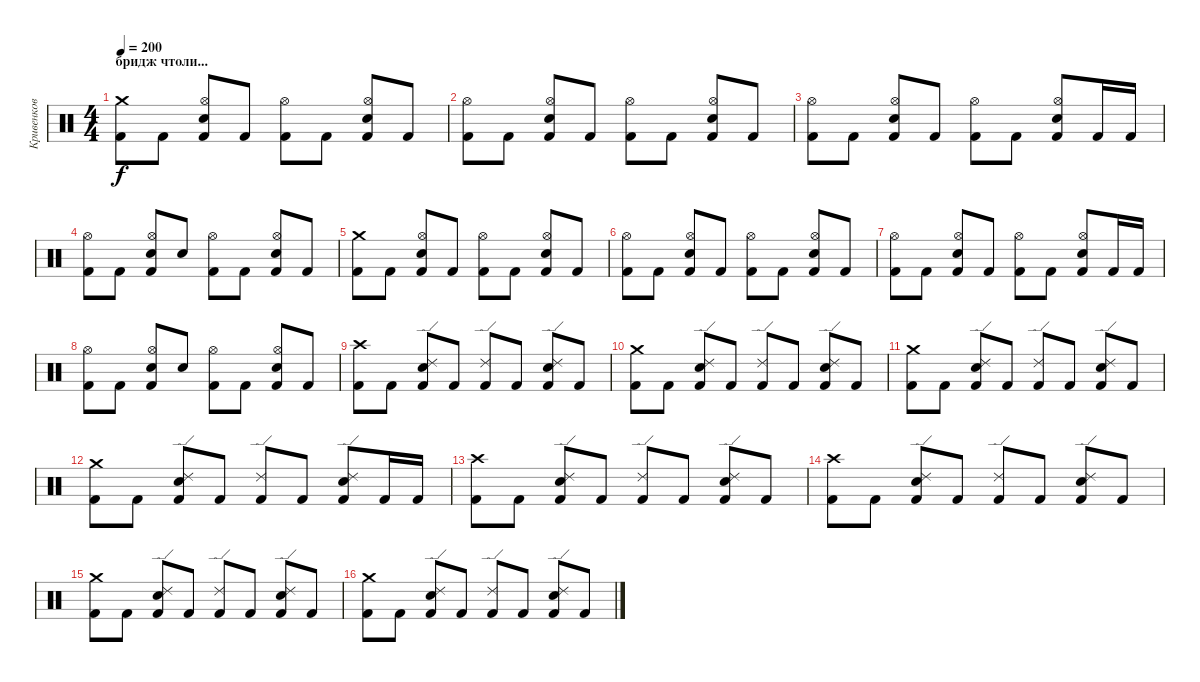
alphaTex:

\track ("Кривенков" "Кривенков") {instrument percussion}
\staff {score}
\articulation defaults
\ts (4 4)
\section ("" "бридж чтоли...")
\tempo 200
\clef neutral
\ks c
("Crash medium (hit)" "Kick (hit) 2").8{dy f} "Kick (hit) 2".8 ("Hi-Hat (open)" "Electric Snare (hit)" "Kick (hit) 2").8 "Kick (hit) 2".8 ("Hi-Hat (open)" "Kick (hit) 2").8 "Kick (hit) 2".8 ("Hi-Hat (open)" "Electric Snare (hit)" "Kick (hit) 2").8 "Kick (hit) 2".8 |
("Hi-Hat (open)" "Kick (hit) 2").8 "Kick (hit) 2".8 ("Hi-Hat (open)" "Electric Snare (hit)" "Kick (hit) 2").8 "Kick (hit) 2".8 ("Hi-Hat (open)" "Kick (hit) 2").8 "Kick (hit) 2".8 ("Hi-Hat (open)" "Electric Snare (hit)" "Kick (hit) 2").8 "Kick (hit) 2".8 |
("Hi-Hat (open)" "Kick (hit) 2").8 "Kick (hit) 2".8 ("Hi-Hat (open)" "Electric Snare (hit)" "Kick (hit) 2").8 "Kick (hit) 2".8 ("Hi-Hat (open)" "Kick (hit) 2").8 "Kick (hit) 2".8 ("Hi-Hat (open)" "Electric Snare (hit)" "Kick (hit) 2").8 "Kick (hit) 2".16 "Kick (hit) 2".16 |
("Hi-Hat (open)" "Kick (hit) 2").8 "Kick (hit) 2".8 ("Hi-Hat (open)" "Electric Snare (hit)" "Kick (hit) 2").8 "Electric Snare (hit)".8 ("Hi-Hat (open)" "Kick (hit) 2").8 "Kick (hit) 2".8 ("Hi-Hat (open)" "Electric Snare (hit)" "Kick (hit) 2").8 "Kick (hit) 2".8 |
("Crash medium (hit)" "Kick (hit) 2").8 "Kick (hit) 2".8 ("Hi-Hat (open)" "Electric Snare (hit)" "Kick (hit) 2").8 "Kick (hit) 2".8 ("Hi-Hat (open)" "Kick (hit) 2").8 "Kick (hit) 2".8 ("Hi-Hat (open)" "Electric Snare (hit)" "Kick (hit) 2").8 "Kick (hit) 2".8 |
("Hi-Hat (open)" "Kick (hit) 2").8 "Kick (hit) 2".8 ("Hi-Hat (open)" "Electric Snare (hit)" "Kick (hit) 2").8 "Kick (hit) 2".8 ("Hi-Hat (open)" "Kick (hit) 2").8 "Kick (hit) 2".8 ("Hi-Hat (open)" "Electric Snare (hit)" "Kick (hit) 2").8 "Kick (hit) 2".8 |
("Hi-Hat (open)" "Kick (hit) 2").8 "Kick (hit) 2".8 ("Hi-Hat (open)" "Electric Snare (hit)" "Kick (hit) 2").8 "Kick (hit) 2".8 ("Hi-Hat (open)" "Kick (hit) 2").8 "Kick (hit) 2".8 ("Hi-Hat (open)" "Electric Snare (hit)" "Kick (hit) 2").8 "Kick (hit) 2".16 "Kick (hit) 2".16 |
("Hi-Hat (open)" "Kick (hit) 2").8 "Kick (hit) 2".8 ("Hi-Hat (open)" "Electric Snare (hit)" "Kick (hit) 2").8 "Electric Snare (hit)".8 ("Hi-Hat (open)" "Kick (hit) 2").8 "Kick (hit) 2".8 ("Hi-Hat (open)" "Electric Snare (hit)" "Kick (hit) 2").8 "Kick (hit) 2".8 |
("Crash high (hit)" "Kick (hit) 2").8 "Kick (hit) 2".8 ("Ride (edge) 2" "Electric Snare (hit)" "Kick (hit) 2").8 "Kick (hit) 2".8 ("Ride (edge) 2" "Kick (hit) 2").8 "Kick (hit) 2".8 ("Ride (edge) 2" "Electric Snare (hit)" "Kick (hit) 2").8 "Kick (hit) 2".8 |
("Crash medium (hit)" "Kick (hit) 2").8 "Kick (hit) 2".8 ("Ride (edge) 2" "Electric Snare (hit)" "Kick (hit) 2").8 "Kick (hit) 2".8 ("Ride (edge) 2" "Kick (hit) 2").8 "Kick (hit) 2".8 ("Ride (edge) 2" "Electric Snare (hit)" "Kick (hit) 2").8 "Kick (hit) 2".8 |
("Crash medium (hit)" "Kick (hit) 2").8 "Kick (hit) 2".8 ("Ride (edge) 2" "Electric Snare (hit)" "Kick (hit) 2").8 "Kick (hit) 2".8 ("Ride (edge) 2" "Kick (hit) 2").8 "Kick (hit) 2".8 ("Ride (edge) 2" "Electric Snare (hit)" "Kick (hit) 2").8 "Kick (hit) 2".8 |
("Crash medium (hit)" "Kick (hit) 2").8 "Kick (hit) 2".8 ("Ride (edge) 2" "Electric Snare (hit)" "Kick (hit) 2").8 "Kick (hit) 2".8 ("Ride (edge) 2" "Kick (hit) 2").8 "Kick (hit) 2".8 ("Ride (edge) 2" "Electric Snare (hit)" "Kick (hit) 2").8 "Kick (hit) 2".16 "Kick (hit) 2".16 |
("Crash high (hit)" "Kick (hit) 2").8 "Kick (hit) 2".8 ("Ride (edge) 2" "Electric Snare (hit)" "Kick (hit) 2").8 "Kick (hit) 2".8 ("Ride (edge) 2" "Kick (hit) 2").8 "Kick (hit) 2".8 ("Ride (edge) 2" "Electric Snare (hit)" "Kick (hit) 2").8 "Kick (hit) 2".8 |
("Crash high (hit)" "Kick (hit) 2").8 "Kick (hit) 2".8 ("Ride (edge) 2" "Electric Snare (hit)" "Kick (hit) 2").8 "Kick (hit) 2".8 ("Ride (edge) 2" "Kick (hit) 2").8 "Kick (hit) 2".8 ("Ride (edge) 2" "Electric Snare (hit)" "Kick (hit) 2").8 "Kick (hit) 2".8 |
("Crash medium (hit)" "Kick (hit) 2").8 "Kick (hit) 2".8 ("Ride (edge) 2" "Electric Snare (hit)" "Kick (hit) 2").8 "Kick (hit) 2".8 ("Ride (edge) 2" "Kick (hit) 2").8 "Kick (hit) 2".8 ("Ride (edge) 2" "Electric Snare (hit)" "Kick (hit) 2").8 "Kick (hit) 2".8 |
("Crash medium (hit)" "Kick (hit) 2").8 "Kick (hit) 2".8 ("Ride (edge) 2" "Electric Snare (hit)" "Kick (hit) 2").8 "Kick (hit) 2".8 ("Ride (edge) 2" "Kick (hit) 2").8 "Kick (hit) 2".8 ("Ride (edge) 2" "Electric Snare (hit)" "Kick (hit) 2").8 "Kick (hit) 2".8
